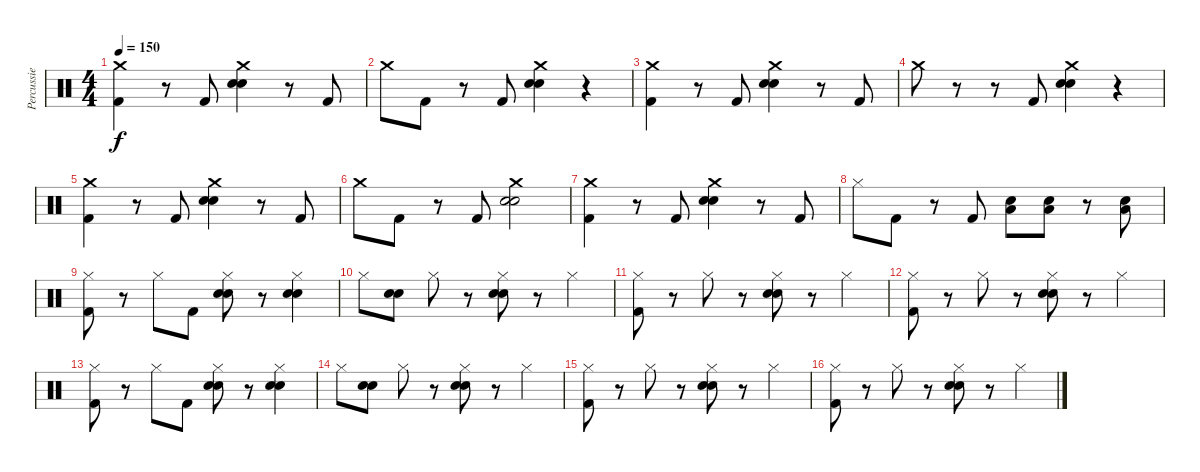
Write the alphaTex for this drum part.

\track ("Percussie" "Percussie") {instrument percussion}
\staff {score}
\articulation defaults
\ts (4 4)
\tempo 150
\clef neutral
\ks c
("Crash medium (hit)" "Kick (hit) 2").4{dy f} r.8 "Kick (hit) 2".8 ("Crash medium (hit)" "Electric Snare (hit)" "Snare (hit) 2").4 r.8 "Kick (hit) 2".8 |
"Crash medium (hit)".8 "Kick (hit) 2".8 r.8 "Kick (hit) 2".8 ("Crash medium (hit)" "Electric Snare (hit)" "Snare (hit) 2").4 r.4 |
("Crash medium (hit)" "Kick (hit) 2").4 r.8 "Kick (hit) 2".8 ("Crash medium (hit)" "Electric Snare (hit)" "Snare (hit) 2").4 r.8 "Kick (hit) 2".8 |
"Crash medium (hit)".8 r.8 r.8 "Kick (hit) 2".8 ("Crash medium (hit)" "Electric Snare (hit)" "Snare (hit) 2").4 r.4 |
("Crash medium (hit)" "Kick (hit) 2").4 r.8 "Kick (hit) 2".8 ("Crash medium (hit)" "Electric Snare (hit)" "Snare (hit) 2").4 r.8 "Kick (hit) 2".8 |
"Crash medium (hit)".8 "Kick (hit) 2".8 r.8 "Kick (hit) 2".8 ("Crash medium (hit)" "Electric Snare (hit)" "Snare (hit) 2").2 |
("Crash medium (hit)" "Kick (hit) 2").4 r.8 "Kick (hit) 2".8 ("Crash medium (hit)" "Electric Snare (hit)" "Snare (hit) 2").4 r.8 "Kick (hit) 2".8 |
"Hi-Hat (closed)".8 "Kick (hit) 2".8 r.8 "Kick (hit) 2".8 ("Electric Snare (hit)" "Low Tom (hit)").8 ("Electric Snare (hit)" "Low Tom (hit)").8 r.8 ("Electric Snare (hit)" "Low Tom (hit)").8 |
("Hi-Hat (closed)" "Kick (hit) 2").8 r.8 "Hi-Hat (closed)".8 "Kick (hit) 2".8 ("Hi-Hat (closed)" "Snare (hit) 2" "Electric Snare (hit)").8 r.8 ("Hi-Hat (closed)" "Snare (hit) 2" "Electric Snare (hit)").4 |
"Hi-Hat (closed)".8 ("Snare (hit) 2" "Electric Snare (hit)").8 "Hi-Hat (closed)".8 r.8 ("Hi-Hat (closed)" "Snare (hit) 2" "Electric Snare (hit)").8 r.8 "Hi-Hat (closed)".4 |
("Hi-Hat (closed)" "Kick (hit) 2").8 r.8 "Hi-Hat (closed)".8 r.8 ("Hi-Hat (closed)" "Snare (hit) 2" "Electric Snare (hit)").8 r.8 "Hi-Hat (closed)".4 |
("Hi-Hat (closed)" "Kick (hit) 2").8 r.8 "Hi-Hat (closed)".8 r.8 ("Hi-Hat (closed)" "Snare (hit) 2" "Electric Snare (hit)").8 r.8 "Hi-Hat (closed)".4 |
("Hi-Hat (closed)" "Kick (hit) 2").8 r.8 "Hi-Hat (closed)".8 "Kick (hit) 2".8 ("Hi-Hat (closed)" "Snare (hit) 2" "Electric Snare (hit)").8 r.8 ("Hi-Hat (closed)" "Snare (hit) 2" "Electric Snare (hit)").4 |
"Hi-Hat (closed)".8 ("Snare (hit) 2" "Electric Snare (hit)").8 "Hi-Hat (closed)".8 r.8 ("Hi-Hat (closed)" "Snare (hit) 2" "Electric Snare (hit)").8 r.8 "Hi-Hat (closed)".4 |
("Hi-Hat (closed)" "Kick (hit) 2").8 r.8 "Hi-Hat (closed)".8 r.8 ("Hi-Hat (closed)" "Snare (hit) 2" "Electric Snare (hit)").8 r.8 "Hi-Hat (closed)".4 |
("Hi-Hat (closed)" "Kick (hit) 2").8 r.8 "Hi-Hat (closed)".8 r.8 ("Hi-Hat (closed)" "Snare (hit) 2" "Electric Snare (hit)").8 r.8 "Hi-Hat (closed)".4
